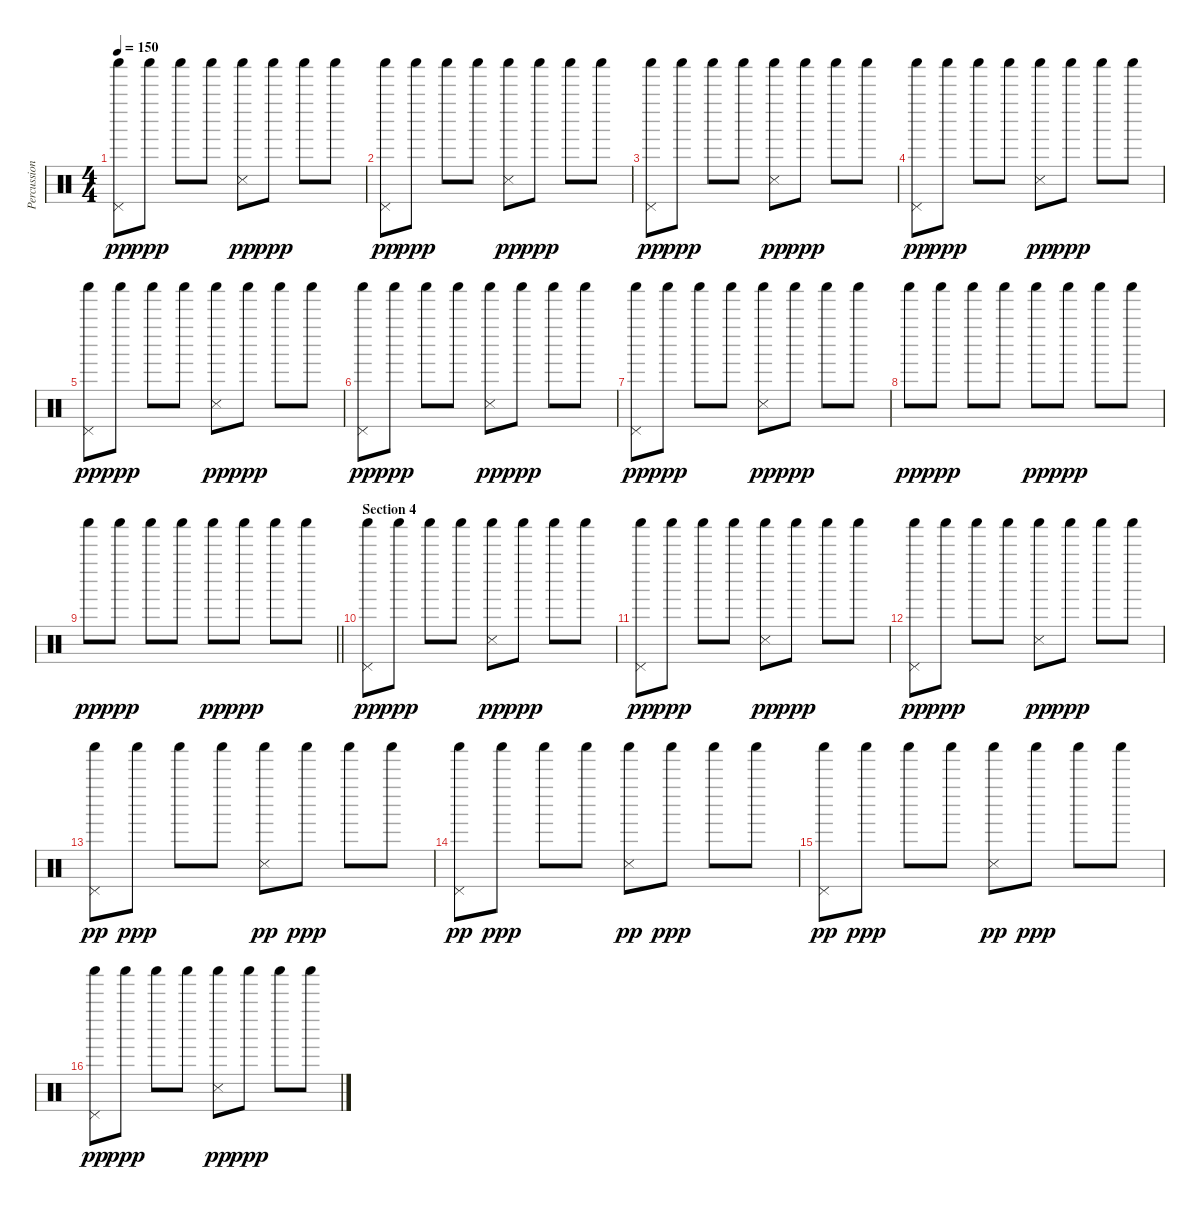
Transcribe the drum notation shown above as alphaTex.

\track ("Percussion" "Percussion") {instrument percussion}
\staff {score}
\articulation defaults
\ts (4 4)
\tempo 150
\clef neutral
\ks c
("Pedal Hi-Hat (hit)" "Shaker (hit)").8{dy pp} "Shaker (hit)".8{dy ppp} "Shaker (hit)".8 "Shaker (hit)".8 ("Snare (side stick) 3" "Shaker (hit)").8{dy pp} "Shaker (hit)".8{dy ppp} "Shaker (hit)".8 "Shaker (hit)".8 |
("Pedal Hi-Hat (hit)" "Shaker (hit)").8{dy pp} "Shaker (hit)".8{dy ppp} "Shaker (hit)".8 "Shaker (hit)".8 ("Snare (side stick) 3" "Shaker (hit)").8{dy pp} "Shaker (hit)".8{dy ppp} "Shaker (hit)".8 "Shaker (hit)".8 |
("Pedal Hi-Hat (hit)" "Shaker (hit)").8{dy pp} "Shaker (hit)".8{dy ppp} "Shaker (hit)".8 "Shaker (hit)".8 ("Snare (side stick) 3" "Shaker (hit)").8{dy pp} "Shaker (hit)".8{dy ppp} "Shaker (hit)".8 "Shaker (hit)".8 |
("Pedal Hi-Hat (hit)" "Shaker (hit)").8{dy pp} "Shaker (hit)".8{dy ppp} "Shaker (hit)".8 "Shaker (hit)".8 ("Snare (side stick) 3" "Shaker (hit)").8{dy pp} "Shaker (hit)".8{dy ppp} "Shaker (hit)".8 "Shaker (hit)".8 |
("Pedal Hi-Hat (hit)" "Shaker (hit)").8{dy pp} "Shaker (hit)".8{dy ppp} "Shaker (hit)".8 "Shaker (hit)".8 ("Snare (side stick) 3" "Shaker (hit)").8{dy pp} "Shaker (hit)".8{dy ppp} "Shaker (hit)".8 "Shaker (hit)".8 |
("Pedal Hi-Hat (hit)" "Shaker (hit)").8{dy pp} "Shaker (hit)".8{dy ppp} "Shaker (hit)".8 "Shaker (hit)".8 ("Snare (side stick) 3" "Shaker (hit)").8{dy pp} "Shaker (hit)".8{dy ppp} "Shaker (hit)".8 "Shaker (hit)".8 |
("Pedal Hi-Hat (hit)" "Shaker (hit)").8{dy pp} "Shaker (hit)".8{dy ppp} "Shaker (hit)".8 "Shaker (hit)".8 ("Snare (side stick) 3" "Shaker (hit)").8{dy pp} "Shaker (hit)".8{dy ppp} "Shaker (hit)".8 "Shaker (hit)".8 |
"Shaker (hit)".8{dy pp} "Shaker (hit)".8{dy ppp} "Shaker (hit)".8 "Shaker (hit)".8 "Shaker (hit)".8{dy pp} "Shaker (hit)".8{dy ppp} "Shaker (hit)".8 "Shaker (hit)".8 |
\barLineRight lightlight "Shaker (hit)".8{dy pp} "Shaker (hit)".8{dy ppp} "Shaker (hit)".8 "Shaker (hit)".8 "Shaker (hit)".8{dy pp} "Shaker (hit)".8{dy ppp} "Shaker (hit)".8 "Shaker (hit)".8
|
\section ("" "Section 4")
("Pedal Hi-Hat (hit)" "Shaker (hit)").8{dy pp} "Shaker (hit)".8{dy ppp} "Shaker (hit)".8 "Shaker (hit)".8 ("Snare (side stick) 3" "Shaker (hit)").8{dy pp} "Shaker (hit)".8{dy ppp} "Shaker (hit)".8 "Shaker (hit)".8 |
("Pedal Hi-Hat (hit)" "Shaker (hit)").8{dy pp} "Shaker (hit)".8{dy ppp} "Shaker (hit)".8 "Shaker (hit)".8 ("Snare (side stick) 3" "Shaker (hit)").8{dy pp} "Shaker (hit)".8{dy ppp} "Shaker (hit)".8 "Shaker (hit)".8 |
("Pedal Hi-Hat (hit)" "Shaker (hit)").8{dy pp} "Shaker (hit)".8{dy ppp} "Shaker (hit)".8 "Shaker (hit)".8 ("Snare (side stick) 3" "Shaker (hit)").8{dy pp} "Shaker (hit)".8{dy ppp} "Shaker (hit)".8 "Shaker (hit)".8 |
("Pedal Hi-Hat (hit)" "Shaker (hit)").8{dy pp} "Shaker (hit)".8{dy ppp} "Shaker (hit)".8 "Shaker (hit)".8 ("Snare (side stick) 3" "Shaker (hit)").8{dy pp} "Shaker (hit)".8{dy ppp} "Shaker (hit)".8 "Shaker (hit)".8 |
("Pedal Hi-Hat (hit)" "Shaker (hit)").8{dy pp} "Shaker (hit)".8{dy ppp} "Shaker (hit)".8 "Shaker (hit)".8 ("Snare (side stick) 3" "Shaker (hit)").8{dy pp} "Shaker (hit)".8{dy ppp} "Shaker (hit)".8 "Shaker (hit)".8 |
("Pedal Hi-Hat (hit)" "Shaker (hit)").8{dy pp} "Shaker (hit)".8{dy ppp} "Shaker (hit)".8 "Shaker (hit)".8 ("Snare (side stick) 3" "Shaker (hit)").8{dy pp} "Shaker (hit)".8{dy ppp} "Shaker (hit)".8 "Shaker (hit)".8 |
("Pedal Hi-Hat (hit)" "Shaker (hit)").8{dy pp} "Shaker (hit)".8{dy ppp} "Shaker (hit)".8 "Shaker (hit)".8 ("Snare (side stick) 3" "Shaker (hit)").8{dy pp} "Shaker (hit)".8{dy ppp} "Shaker (hit)".8 "Shaker (hit)".8
